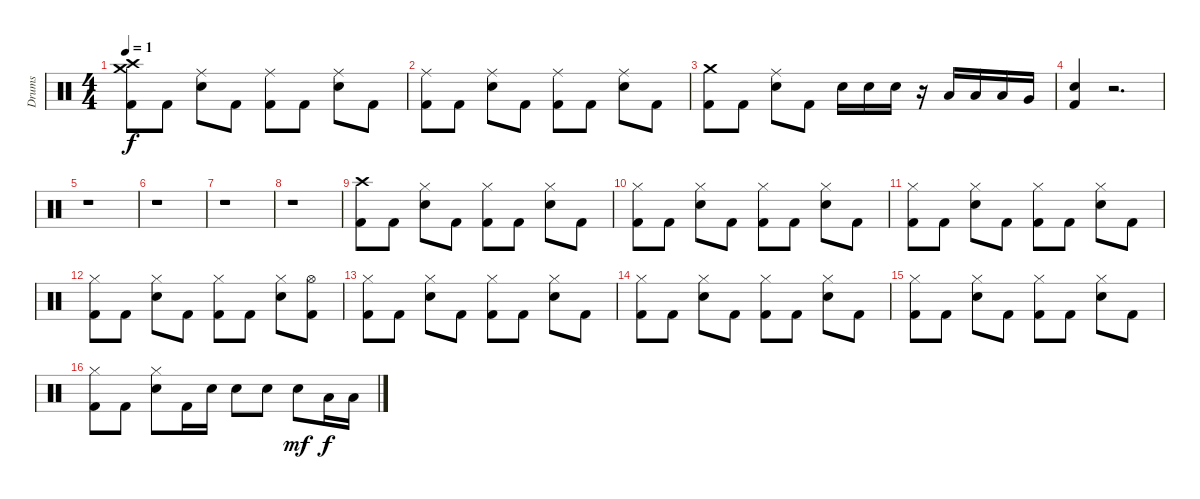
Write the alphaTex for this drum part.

\track ("Drums" "Drums") {instrument percussion}
\staff {score}
\articulation defaults
\ts (4 4)
\tempo 1
\clef neutral
\ks c
("Crash high (hit)" "Crash medium (hit)" "Kick (hit) 2").8{dy f} "Kick (hit) 2".8 ("Ride (middle)" "Snare (hit) 2").8 "Kick (hit) 2".8 ("Ride (middle)" "Kick (hit) 2").8 "Kick (hit) 2".8 ("Ride (middle)" "Snare (hit) 2").8 "Kick (hit) 2".8 |
("Ride (middle)" "Kick (hit) 2").8 "Kick (hit) 2".8 ("Ride (middle)" "Snare (hit) 2").8 "Kick (hit) 2".8 ("Ride (middle)" "Kick (hit) 2").8 "Kick (hit) 2".8 ("Ride (middle)" "Snare (hit) 2").8 "Kick (hit) 2".8 |
("Crash medium (hit)" "Kick (hit) 2").8 "Kick (hit) 2".8 ("Ride (middle)" "Snare (hit) 2").8 "Kick (hit) 2".8 "Snare (hit) 2".16 "Snare (hit) 2".16 "Snare (hit) 2".16 r.16 "Low Tom (hit)".16 "Low Tom (hit)".16 "Low Tom (hit)".16 "Very Low Tom (hit)".16 |
("Snare (hit) 2" "Kick (hit) 2").4 r.2{d} |
r.1 |
r.1 |
r.1 |
r.1 |
("Crash high (hit)" "Kick (hit) 2").8 "Kick (hit) 2".8 ("Snare (hit) 2" "Hi-Hat (closed)").8 "Kick (hit) 2".8 ("Kick (hit) 2" "Hi-Hat (closed)").8 "Kick (hit) 2".8 ("Snare (hit) 2" "Hi-Hat (closed)").8 "Kick (hit) 2".8 |
("Kick (hit) 2" "Hi-Hat (closed)").8 "Kick (hit) 2".8 ("Snare (hit) 2" "Hi-Hat (closed)").8 "Kick (hit) 2".8 ("Kick (hit) 2" "Hi-Hat (closed)").8 "Kick (hit) 2".8 ("Snare (hit) 2" "Hi-Hat (closed)").8 "Kick (hit) 2".8 |
("Kick (hit) 2" "Hi-Hat (closed)").8 "Kick (hit) 2".8 ("Snare (hit) 2" "Hi-Hat (closed)").8 "Kick (hit) 2".8 ("Kick (hit) 2" "Hi-Hat (closed)").8 "Kick (hit) 2".8 ("Snare (hit) 2" "Hi-Hat (closed)").8 "Kick (hit) 2".8 |
("Kick (hit) 2" "Hi-Hat (closed)").8 "Kick (hit) 2".8 ("Snare (hit) 2" "Hi-Hat (closed)").8 "Kick (hit) 2".8 ("Kick (hit) 2" "Hi-Hat (closed)").8 "Kick (hit) 2".8 ("Snare (hit) 2" "Hi-Hat (closed)").8 ("Hi-Hat (open)" "Kick (hit) 2").8 |
("Kick (hit) 2" "Hi-Hat (closed)").8 "Kick (hit) 2".8 ("Snare (hit) 2" "Hi-Hat (closed)").8 "Kick (hit) 2".8 ("Kick (hit) 2" "Hi-Hat (closed)").8 "Kick (hit) 2".8 ("Snare (hit) 2" "Hi-Hat (closed)").8 "Kick (hit) 2".8 |
("Kick (hit) 2" "Hi-Hat (closed)").8 "Kick (hit) 2".8 ("Snare (hit) 2" "Hi-Hat (closed)").8 "Kick (hit) 2".8 ("Kick (hit) 2" "Hi-Hat (closed)").8 "Kick (hit) 2".8 ("Snare (hit) 2" "Hi-Hat (closed)").8 "Kick (hit) 2".8 |
("Kick (hit) 2" "Hi-Hat (closed)").8 "Kick (hit) 2".8 ("Snare (hit) 2" "Hi-Hat (closed)").8 "Kick (hit) 2".8 ("Kick (hit) 2" "Hi-Hat (closed)").8 "Kick (hit) 2".8 ("Snare (hit) 2" "Hi-Hat (closed)").8 "Kick (hit) 2".8 |
("Kick (hit) 2" "Hi-Hat (closed)").8 "Kick (hit) 2".8 ("Snare (hit) 2" "Hi-Hat (closed)").8 "Kick (hit) 2".16 "Snare (hit) 2".16 "Snare (hit) 2".8 "Snare (hit) 2".8 "Snare (hit) 2".8{dy mf} "Low Tom (hit)".16{dy f} "Low Tom (hit)".16
